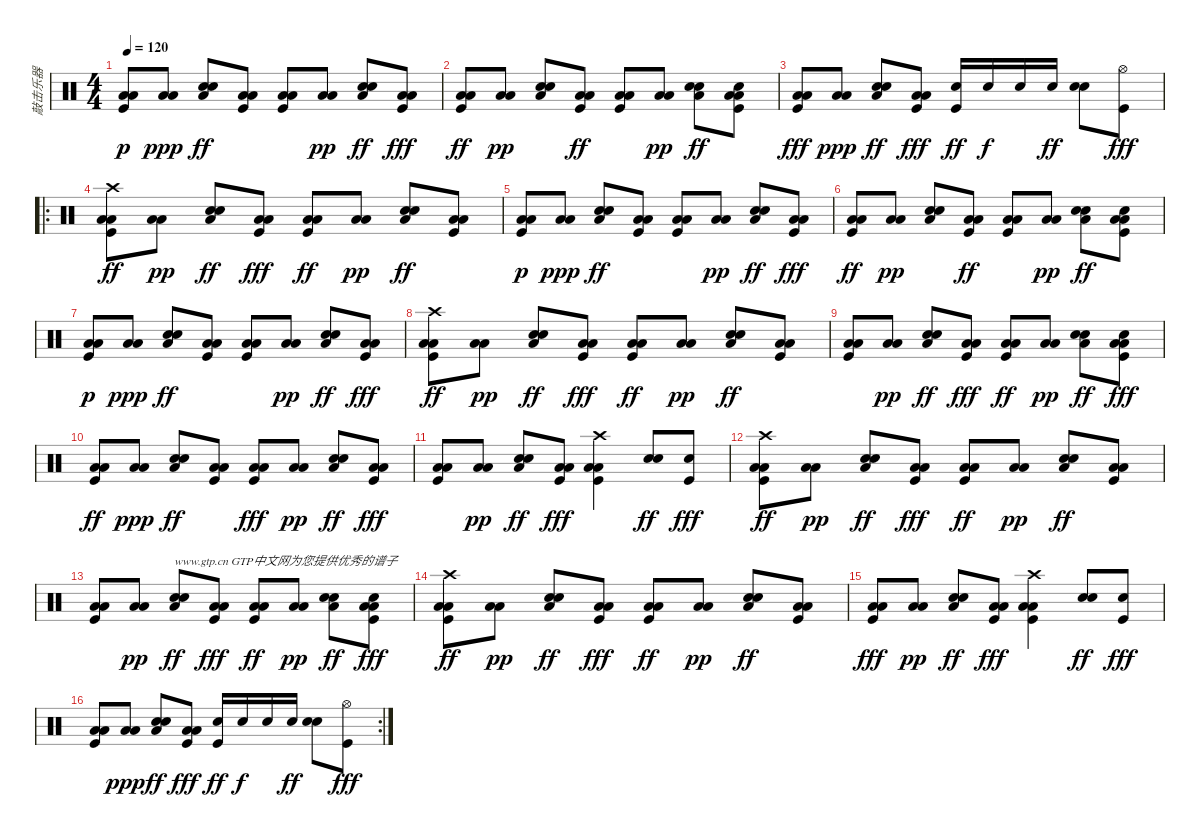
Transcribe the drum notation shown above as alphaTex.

\track ("敲击乐器" "敲击乐器") {instrument percussion}
\staff {score}
\articulation defaults
\ts (4 4)
\tempo 120
\clef neutral
\ks c
("Low Tom (hit)" "Low Floor Tom (hit)" "Kick (hit)").8{dy p} ("Low Floor Tom (hit)" "Low Tom (hit)").8{dy ppp} ("Hand Clap (hit)" "Low Floor Tom (hit)" "Snare (hit) 2").8{dy ff} ("Low Tom (hit)" "Low Floor Tom (hit)" "Kick (hit)").8 ("Low Tom (hit)" "Low Floor Tom (hit)" "Kick (hit)").8 ("Low Tom (hit)" "Low Floor Tom (hit)").8{dy pp} ("Snare (hit) 2" "Low Floor Tom (hit)" "Hand Clap (hit)").8{dy ff} ("Low Tom (hit)" "Low Floor Tom (hit)" "Kick (hit)").8{dy fff} |
("Low Tom (hit)" "Low Floor Tom (hit)" "Kick (hit)").8{dy ff} ("Low Tom (hit)" "Low Floor Tom (hit)").8{dy pp} ("Hand Clap (hit)" "Snare (hit) 2" "Low Floor Tom (hit)").8 ("Low Tom (hit)" "Low Floor Tom (hit)" "Kick (hit)").8{dy ff} ("Low Tom (hit)" "Low Floor Tom (hit)" "Kick (hit)").8 ("Low Floor Tom (hit)" "Low Tom (hit)").8{dy pp} ("Snare (hit) 2" "Low Floor Tom (hit)" "Hand Clap (hit)").8{dy ff} ("Snare (hit) 2" "Low Tom (hit)" "Low Floor Tom (hit)" "Kick (hit)").8 |
("Low Tom (hit)" "Low Floor Tom (hit)" "Kick (hit)").8{dy fff} ("Low Floor Tom (hit)" "Low Tom (hit)").8{dy ppp} ("Low Floor Tom (hit)" "Hand Clap (hit)" "Snare (hit) 2").8{dy ff} ("Low Tom (hit)" "Low Floor Tom (hit)" "Kick (hit)").8{dy fff} ("Kick (hit)" "Snare (hit) 2").16{dy ff} "Snare (hit) 2".16{dy f} "Snare (hit) 2".16 "Snare (hit) 2".16{dy ff} ("Hand Clap (hit)" "Snare (hit) 2").8 ("Kick (hit)" "Hi-Hat (open)").8{dy fff} |
\ro
("Crash high (hit)" "Low Tom (hit)" "Low Floor Tom (hit)" "Kick (hit)").8{dy ff} ("Low Tom (hit)" "Low Floor Tom (hit)").8{dy pp} ("Snare (hit) 2" "Low Floor Tom (hit)" "Hand Clap (hit)").8{dy ff} ("Low Tom (hit)" "Low Floor Tom (hit)" "Kick (hit)").8{dy fff} ("Low Tom (hit)" "Low Floor Tom (hit)" "Kick (hit)").8{dy ff} ("Low Tom (hit)" "Low Floor Tom (hit)").8{dy pp} ("Low Floor Tom (hit)" "Hand Clap (hit)" "Snare (hit) 2").8{dy ff} ("Low Tom (hit)" "Low Floor Tom (hit)" "Kick (hit)").8 |
("Low Tom (hit)" "Low Floor Tom (hit)" "Kick (hit)").8{dy p} ("Low Floor Tom (hit)" "Low Tom (hit)").8{dy ppp} ("Hand Clap (hit)" "Low Floor Tom (hit)" "Snare (hit) 2").8{dy ff} ("Low Tom (hit)" "Low Floor Tom (hit)" "Kick (hit)").8 ("Low Tom (hit)" "Low Floor Tom (hit)" "Kick (hit)").8 ("Low Tom (hit)" "Low Floor Tom (hit)").8{dy pp} ("Snare (hit) 2" "Low Floor Tom (hit)" "Hand Clap (hit)").8{dy ff} ("Low Tom (hit)" "Low Floor Tom (hit)" "Kick (hit)").8{dy fff} |
("Low Tom (hit)" "Low Floor Tom (hit)" "Kick (hit)").8{dy ff} ("Low Tom (hit)" "Low Floor Tom (hit)").8{dy pp} ("Hand Clap (hit)" "Snare (hit) 2" "Low Floor Tom (hit)").8 ("Low Tom (hit)" "Low Floor Tom (hit)" "Kick (hit)").8{dy ff} ("Low Tom (hit)" "Low Floor Tom (hit)" "Kick (hit)").8 ("Low Floor Tom (hit)" "Low Tom (hit)").8{dy pp} ("Snare (hit) 2" "Low Floor Tom (hit)" "Hand Clap (hit)").8{dy ff} ("Snare (hit) 2" "Low Tom (hit)" "Low Floor Tom (hit)" "Kick (hit)").8 |
("Low Tom (hit)" "Low Floor Tom (hit)" "Kick (hit)").8{dy p} ("Low Floor Tom (hit)" "Low Tom (hit)").8{dy ppp} ("Hand Clap (hit)" "Low Floor Tom (hit)" "Snare (hit) 2").8{dy ff} ("Low Tom (hit)" "Low Floor Tom (hit)" "Kick (hit)").8 ("Low Tom (hit)" "Low Floor Tom (hit)" "Kick (hit)").8 ("Low Tom (hit)" "Low Floor Tom (hit)").8{dy pp} ("Snare (hit) 2" "Low Floor Tom (hit)" "Hand Clap (hit)").8{dy ff} ("Low Tom (hit)" "Low Floor Tom (hit)" "Kick (hit)").8{dy fff} |
("Crash high (hit)" "Low Tom (hit)" "Low Floor Tom (hit)" "Kick (hit)").8{dy ff} ("Low Tom (hit)" "Low Floor Tom (hit)").8{dy pp} ("Snare (hit) 2" "Low Floor Tom (hit)" "Hand Clap (hit)").8{dy ff} ("Low Tom (hit)" "Low Floor Tom (hit)" "Kick (hit)").8{dy fff} ("Low Tom (hit)" "Low Floor Tom (hit)" "Kick (hit)").8{dy ff} ("Low Tom (hit)" "Low Floor Tom (hit)").8{dy pp} ("Low Floor Tom (hit)" "Hand Clap (hit)" "Snare (hit) 2").8{dy ff} ("Low Tom (hit)" "Low Floor Tom (hit)" "Kick (hit)").8 |
("Low Tom (hit)" "Low Floor Tom (hit)" "Kick (hit)").8 ("Low Tom (hit)" "Low Floor Tom (hit)").8{dy pp} ("Snare (hit) 2" "Low Floor Tom (hit)" "Hand Clap (hit)").8{dy ff} ("Low Tom (hit)" "Low Floor Tom (hit)" "Kick (hit)").8{dy fff} ("Low Tom (hit)" "Low Floor Tom (hit)" "Kick (hit)").8{dy ff} ("Low Floor Tom (hit)" "Low Tom (hit)").8{dy pp} ("Snare (hit) 2" "Low Floor Tom (hit)" "Hand Clap (hit)").8{dy ff} ("Snare (hit) 2" "Low Tom (hit)" "Low Floor Tom (hit)" "Kick (hit)").8{dy fff} |
("Low Tom (hit)" "Low Floor Tom (hit)" "Kick (hit)").8{dy ff} ("Low Floor Tom (hit)" "Low Tom (hit)").8{dy ppp} ("Low Floor Tom (hit)" "Hand Clap (hit)" "Snare (hit) 2").8{dy ff} ("Low Tom (hit)" "Low Floor Tom (hit)" "Kick (hit)").8 ("Low Tom (hit)" "Low Floor Tom (hit)" "Kick (hit)").8{dy fff} ("Low Tom (hit)" "Low Floor Tom (hit)").8{dy pp} ("Snare (hit) 2" "Low Floor Tom (hit)" "Hand Clap (hit)").8{dy ff} ("Low Tom (hit)" "Low Floor Tom (hit)" "Kick (hit)").8{dy fff} |
("Low Tom (hit)" "Low Floor Tom (hit)" "Kick (hit)").8 ("Low Tom (hit)" "Low Floor Tom (hit)").8{dy pp} ("Snare (hit) 2" "Low Floor Tom (hit)" "Hand Clap (hit)").8{dy ff} ("Low Tom (hit)" "Low Floor Tom (hit)" "Kick (hit)").8{dy fff} ("Low Tom (hit)" "Low Floor Tom (hit)" "Kick (hit)" "Crash high (hit)").4 ("Snare (hit) 2" "Hand Clap (hit)").8{dy ff} ("Snare (hit) 2" "Kick (hit)").8{dy fff} |
("Crash high (hit)" "Low Tom (hit)" "Low Floor Tom (hit)" "Kick (hit)").8{dy ff} ("Low Tom (hit)" "Low Floor Tom (hit)").8{dy pp} ("Snare (hit) 2" "Low Floor Tom (hit)" "Hand Clap (hit)").8{dy ff} ("Low Tom (hit)" "Low Floor Tom (hit)" "Kick (hit)").8{dy fff} ("Low Tom (hit)" "Low Floor Tom (hit)" "Kick (hit)").8{dy ff} ("Low Tom (hit)" "Low Floor Tom (hit)").8{dy pp} ("Low Floor Tom (hit)" "Hand Clap (hit)" "Snare (hit) 2").8{dy ff} ("Low Tom (hit)" "Low Floor Tom (hit)" "Kick (hit)").8 |
("Low Tom (hit)" "Low Floor Tom (hit)" "Kick (hit)").8 ("Low Tom (hit)" "Low Floor Tom (hit)").8{dy pp} ("Snare (hit) 2" "Low Floor Tom (hit)" "Hand Clap (hit)").8{txt "www.gtp.cn GTP中文网为您提供优秀的谱子" dy ff} ("Low Tom (hit)" "Low Floor Tom (hit)" "Kick (hit)").8{dy fff} ("Low Tom (hit)" "Low Floor Tom (hit)" "Kick (hit)").8{dy ff} ("Low Floor Tom (hit)" "Low Tom (hit)").8{dy pp} ("Snare (hit) 2" "Low Floor Tom (hit)" "Hand Clap (hit)").8{dy ff} ("Snare (hit) 2" "Low Tom (hit)" "Low Floor Tom (hit)" "Kick (hit)").8{dy fff} |
("Crash high (hit)" "Low Tom (hit)" "Low Floor Tom (hit)" "Kick (hit)").8{dy ff} ("Low Tom (hit)" "Low Floor Tom (hit)").8{dy pp} ("Snare (hit) 2" "Low Floor Tom (hit)" "Hand Clap (hit)").8{dy ff} ("Low Tom (hit)" "Low Floor Tom (hit)" "Kick (hit)").8{dy fff} ("Low Tom (hit)" "Low Floor Tom (hit)" "Kick (hit)").8{dy ff} ("Low Tom (hit)" "Low Floor Tom (hit)").8{dy pp} ("Low Floor Tom (hit)" "Hand Clap (hit)" "Snare (hit) 2").8{dy ff} ("Low Tom (hit)" "Low Floor Tom (hit)" "Kick (hit)").8 |
("Low Tom (hit)" "Low Floor Tom (hit)" "Kick (hit)").8{dy fff} ("Low Tom (hit)" "Low Floor Tom (hit)").8{dy pp} ("Snare (hit) 2" "Low Floor Tom (hit)" "Hand Clap (hit)").8{dy ff} ("Low Tom (hit)" "Low Floor Tom (hit)" "Kick (hit)").8{dy fff} ("Low Tom (hit)" "Low Floor Tom (hit)" "Kick (hit)" "Crash high (hit)").4 ("Snare (hit) 2" "Hand Clap (hit)").8{dy ff} ("Snare (hit) 2" "Kick (hit)").8{dy fff} |
\rc 2
("Low Tom (hit)" "Low Floor Tom (hit)" "Kick (hit)").8 ("Low Floor Tom (hit)" "Low Tom (hit)").8{dy ppp} ("Low Floor Tom (hit)" "Hand Clap (hit)" "Snare (hit) 2").8{dy ff} ("Low Tom (hit)" "Low Floor Tom (hit)" "Kick (hit)").8{dy fff} ("Kick (hit)" "Snare (hit) 2").16{dy ff} "Snare (hit) 2".16{dy f} "Snare (hit) 2".16 "Snare (hit) 2".16{dy ff} ("Hand Clap (hit)" "Snare (hit) 2").8 ("Kick (hit)" "Hi-Hat (open)").8{dy fff}
